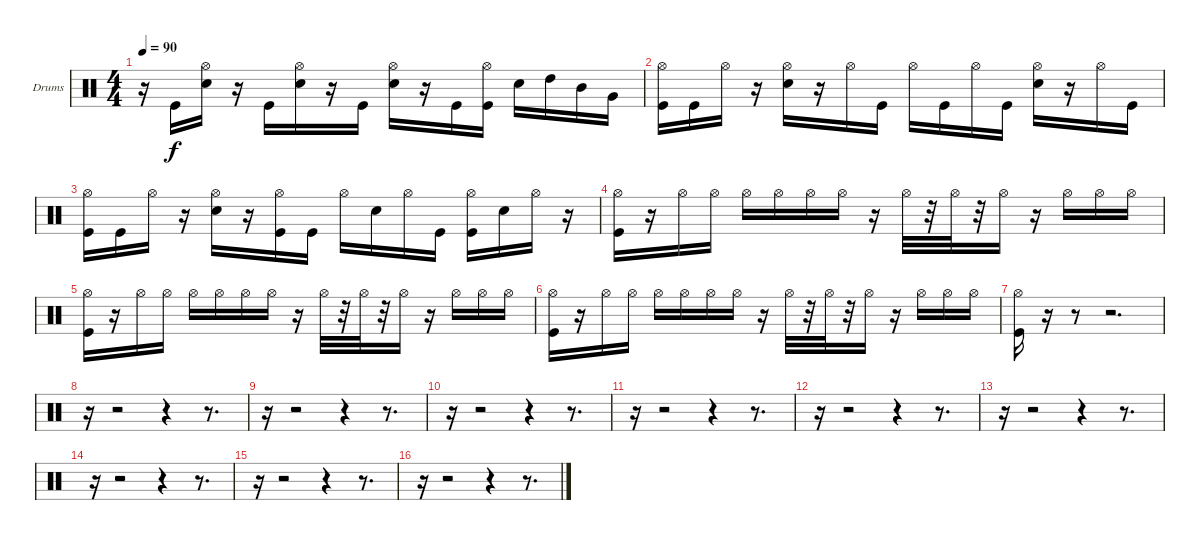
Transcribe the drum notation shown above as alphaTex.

\bracketExtendMode groupsimilarinstruments
\firstSystemTrackNameOrientation horizontal
\otherSystemsTrackNameOrientation horizontal
\track ("Drumkit" "Drums") {instrument percussion}
\staff {score}
\articulation defaults
\ts (4 4)
\tempo 90
\clef neutral
\ks c
r.16{dy f} "Kick (hit)".16 ("Hi-Hat (open)" "Snare (hit) 2").16 r.16 "Kick (hit)".16 ("Hi-Hat (open)" "Snare (hit) 2").16 r.16 "Kick (hit)".16 ("Hi-Hat (open)" "Snare (hit) 2").16 r.16 "Kick (hit)".16 ("Hi-Hat (open)" "Kick (hit)").16 "Snare (hit) 2".16 "High Tom (hit)".16 "Mid Tom (hit)".16 "Very Low Tom (hit)".16 |
("Hi-Hat (open)" "Kick (hit)").16 "Kick (hit)".16 "Hi-Hat (open)".16 r.16 ("Hi-Hat (open)" "Snare (hit) 2").16 r.16 "Hi-Hat (open)".16 "Kick (hit)".16 "Hi-Hat (open)".16 "Kick (hit)".16 "Hi-Hat (open)".16 "Kick (hit)".16 ("Hi-Hat (open)" "Snare (hit) 2").16 r.16 "Hi-Hat (open)".16 "Kick (hit)".16 |
("Hi-Hat (open)" "Kick (hit)").16 "Kick (hit)".16 "Hi-Hat (open)".16 r.16 ("Hi-Hat (open)" "Snare (hit) 2").16 r.16 ("Hi-Hat (open)" "Kick (hit)").16 "Kick (hit)".16 "Hi-Hat (open)".16 "Snare (hit) 2".16 "Hi-Hat (open)".16 "Kick (hit)".16 ("Hi-Hat (open)" "Kick (hit)").16 "Snare (hit) 2".16 "Hi-Hat (open)".16 r.16 |
("Hi-Hat (open)" "Kick (hit)").16 r.16 "Hi-Hat (open)".16 "Hi-Hat (open)".16 "Hi-Hat (open)".16 "Hi-Hat (open)".16 "Hi-Hat (open)".16 "Hi-Hat (open)".16 r.16 "Hi-Hat (open)".32 r.32 "Hi-Hat (open)".32 r.32 "Hi-Hat (open)".16 r.16 "Hi-Hat (open)".16 "Hi-Hat (open)".16 "Hi-Hat (open)".16 |
("Hi-Hat (open)" "Kick (hit)").16 r.16 "Hi-Hat (open)".16 "Hi-Hat (open)".16 "Hi-Hat (open)".16 "Hi-Hat (open)".16 "Hi-Hat (open)".16 "Hi-Hat (open)".16 r.16 "Hi-Hat (open)".32 r.32 "Hi-Hat (open)".32 r.32 "Hi-Hat (open)".16 r.16 "Hi-Hat (open)".16 "Hi-Hat (open)".16 "Hi-Hat (open)".16 |
("Hi-Hat (open)" "Kick (hit)").16 r.16 "Hi-Hat (open)".16 "Hi-Hat (open)".16 "Hi-Hat (open)".16 "Hi-Hat (open)".16 "Hi-Hat (open)".16 "Hi-Hat (open)".16 r.16 "Hi-Hat (open)".32 r.32 "Hi-Hat (open)".32 r.32 "Hi-Hat (open)".16 r.16 "Hi-Hat (open)".16 "Hi-Hat (open)".16 "Hi-Hat (open)".16 |
("Hi-Hat (open)" "Kick (hit)").16 r.16 r.8 r.2{d} |
r.16 r.2 r.4 r.8{d} |
r.16 r.2 r.4 r.8{d} |
r.16 r.2 r.4 r.8{d} |
r.16 r.2 r.4 r.8{d} |
r.16 r.2 r.4 r.8{d} |
r.16 r.2 r.4 r.8{d} |
r.16 r.2 r.4 r.8{d} |
r.16 r.2 r.4 r.8{d} |
r.16 r.2 r.4 r.8{d}
